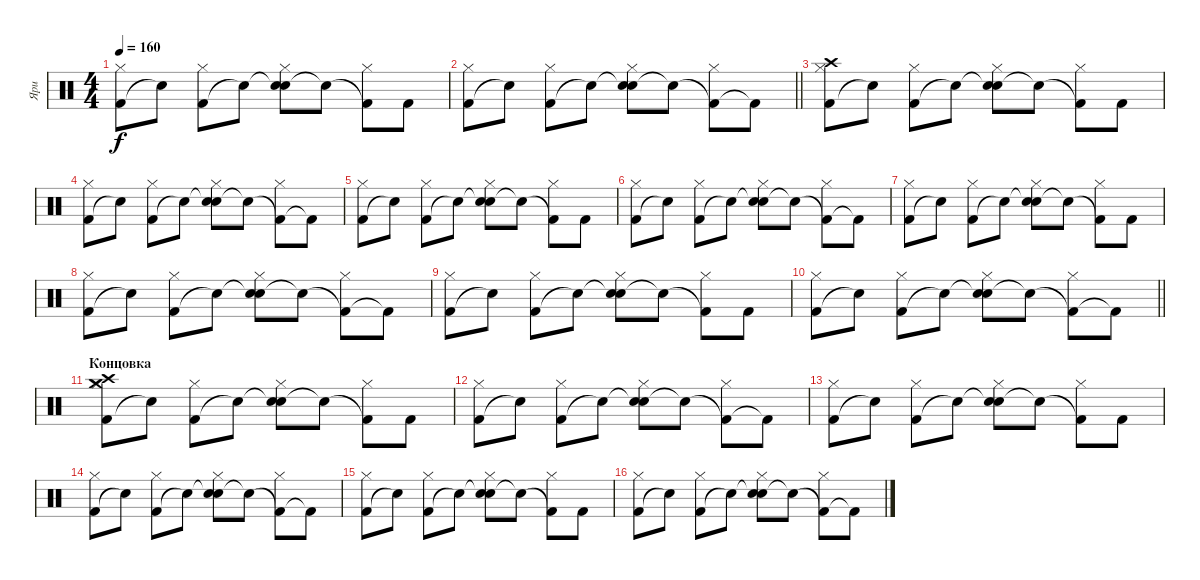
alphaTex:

\track ("Яри" "Яри") {instrument percussion}
\staff {score}
\articulation defaults
\ts (4 4)
\tempo 160
\clef neutral
\ks c
("Kick (hit) 2" "Hi-Hat (closed)").8{dy f} "Snare (hit)"{t}.8 ("Kick (hit) 2" "Hi-Hat (closed)").8 "Snare (hit)"{t}.8 ("Snare (hit)"{t} "Hi-Hat (closed)" "Snare (hit) 2").8 "Snare (hit)"{t}.8 ("Kick (hit) 2"{t} "Hi-Hat (closed)").8 "Kick (hit) 2".8 |
\barLineRight lightlight
("Kick (hit) 2" "Hi-Hat (closed)").8 "Snare (hit)"{t}.8 ("Kick (hit) 2" "Hi-Hat (closed)").8 "Snare (hit)"{t}.8 ("Snare (hit)"{t} "Hi-Hat (closed)" "Snare (hit) 2").8 "Snare (hit)"{t}.8 ("Kick (hit) 2"{t} "Hi-Hat (closed)").8 "Kick (hit) 2"{t}.8 |
("Kick (hit) 2" "Hi-Hat (closed)" "Crash high (hit)").8 "Snare (hit)"{t}.8 ("Kick (hit) 2" "Hi-Hat (closed)").8 "Snare (hit)"{t}.8 ("Snare (hit)"{t} "Hi-Hat (closed)" "Snare (hit) 2").8 "Snare (hit)"{t}.8 ("Kick (hit) 2"{t} "Hi-Hat (closed)").8 "Kick (hit) 2".8 |
("Kick (hit) 2" "Hi-Hat (closed)").8 "Snare (hit)"{t}.8 ("Kick (hit) 2" "Hi-Hat (closed)").8 "Snare (hit)"{t}.8 ("Snare (hit)"{t} "Hi-Hat (closed)" "Snare (hit) 2").8 "Snare (hit)"{t}.8 ("Kick (hit) 2"{t} "Hi-Hat (closed)").8 "Kick (hit) 2"{t}.8 |
("Kick (hit) 2" "Hi-Hat (closed)").8 "Snare (hit)"{t}.8 ("Kick (hit) 2" "Hi-Hat (closed)").8 "Snare (hit)"{t}.8 ("Snare (hit)"{t} "Hi-Hat (closed)" "Snare (hit) 2").8 "Snare (hit)"{t}.8 ("Kick (hit) 2"{t} "Hi-Hat (closed)").8 "Kick (hit) 2".8 |
("Kick (hit) 2" "Hi-Hat (closed)").8 "Snare (hit)"{t}.8 ("Kick (hit) 2" "Hi-Hat (closed)").8 "Snare (hit)"{t}.8 ("Snare (hit)"{t} "Hi-Hat (closed)" "Snare (hit) 2").8 "Snare (hit)"{t}.8 ("Kick (hit) 2"{t} "Hi-Hat (closed)").8 "Kick (hit) 2"{t}.8 |
("Kick (hit) 2" "Hi-Hat (closed)").8 "Snare (hit)"{t}.8 ("Kick (hit) 2" "Hi-Hat (closed)").8 "Snare (hit)"{t}.8 ("Snare (hit)"{t} "Hi-Hat (closed)" "Snare (hit) 2").8 "Snare (hit)"{t}.8 ("Kick (hit) 2"{t} "Hi-Hat (closed)").8 "Kick (hit) 2".8 |
("Kick (hit) 2" "Hi-Hat (closed)").8 "Snare (hit)"{t}.8 ("Kick (hit) 2" "Hi-Hat (closed)").8 "Snare (hit)"{t}.8 ("Snare (hit)"{t} "Hi-Hat (closed)" "Snare (hit) 2").8 "Snare (hit)"{t}.8 ("Kick (hit) 2"{t} "Hi-Hat (closed)").8 "Kick (hit) 2"{t}.8 |
("Kick (hit) 2" "Hi-Hat (closed)").8 "Snare (hit)"{t}.8 ("Kick (hit) 2" "Hi-Hat (closed)").8 "Snare (hit)"{t}.8 ("Snare (hit)"{t} "Hi-Hat (closed)" "Snare (hit) 2").8 "Snare (hit)"{t}.8 ("Kick (hit) 2"{t} "Hi-Hat (closed)").8 "Kick (hit) 2".8 |
\barLineRight lightlight
("Kick (hit) 2" "Hi-Hat (closed)").8 "Snare (hit)"{t}.8 ("Kick (hit) 2" "Hi-Hat (closed)").8 "Snare (hit)"{t}.8 ("Snare (hit)"{t} "Hi-Hat (closed)" "Snare (hit) 2").8 "Snare (hit)"{t}.8 ("Kick (hit) 2"{t} "Hi-Hat (closed)").8 "Kick (hit) 2"{t}.8 |
\section ("" "Концовка")
("Kick (hit) 2" "Hi-Hat (closed)" "Crash medium (hit)" "Crash high (hit)").8 "Snare (hit)"{t}.8 ("Kick (hit) 2" "Hi-Hat (closed)").8 "Snare (hit)"{t}.8 ("Snare (hit)"{t} "Hi-Hat (closed)" "Snare (hit) 2").8 "Snare (hit)"{t}.8 ("Kick (hit) 2"{t} "Hi-Hat (closed)").8 "Kick (hit) 2".8 |
("Kick (hit) 2" "Hi-Hat (closed)").8 "Snare (hit)"{t}.8 ("Kick (hit) 2" "Hi-Hat (closed)").8 "Snare (hit)"{t}.8 ("Snare (hit)"{t} "Hi-Hat (closed)" "Snare (hit) 2").8 "Snare (hit)"{t}.8 ("Kick (hit) 2"{t} "Hi-Hat (closed)").8 "Kick (hit) 2"{t}.8 |
("Kick (hit) 2" "Hi-Hat (closed)").8 "Snare (hit)"{t}.8 ("Kick (hit) 2" "Hi-Hat (closed)").8 "Snare (hit)"{t}.8 ("Snare (hit)"{t} "Hi-Hat (closed)" "Snare (hit) 2").8 "Snare (hit)"{t}.8 ("Kick (hit) 2"{t} "Hi-Hat (closed)").8 "Kick (hit) 2".8 |
("Kick (hit) 2" "Hi-Hat (closed)").8 "Snare (hit)"{t}.8 ("Kick (hit) 2" "Hi-Hat (closed)").8 "Snare (hit)"{t}.8 ("Snare (hit)"{t} "Hi-Hat (closed)" "Snare (hit) 2").8 "Snare (hit)"{t}.8 ("Kick (hit) 2"{t} "Hi-Hat (closed)").8 "Kick (hit) 2"{t}.8 |
("Kick (hit) 2" "Hi-Hat (closed)").8 "Snare (hit)"{t}.8 ("Kick (hit) 2" "Hi-Hat (closed)").8 "Snare (hit)"{t}.8 ("Snare (hit)"{t} "Hi-Hat (closed)" "Snare (hit) 2").8 "Snare (hit)"{t}.8 ("Kick (hit) 2"{t} "Hi-Hat (closed)").8 "Kick (hit) 2".8 |
("Kick (hit) 2" "Hi-Hat (closed)").8 "Snare (hit)"{t}.8 ("Kick (hit) 2" "Hi-Hat (closed)").8 "Snare (hit)"{t}.8 ("Snare (hit)"{t} "Hi-Hat (closed)" "Snare (hit) 2").8 "Snare (hit)"{t}.8 ("Kick (hit) 2"{t} "Hi-Hat (closed)").8 "Kick (hit) 2"{t}.8
